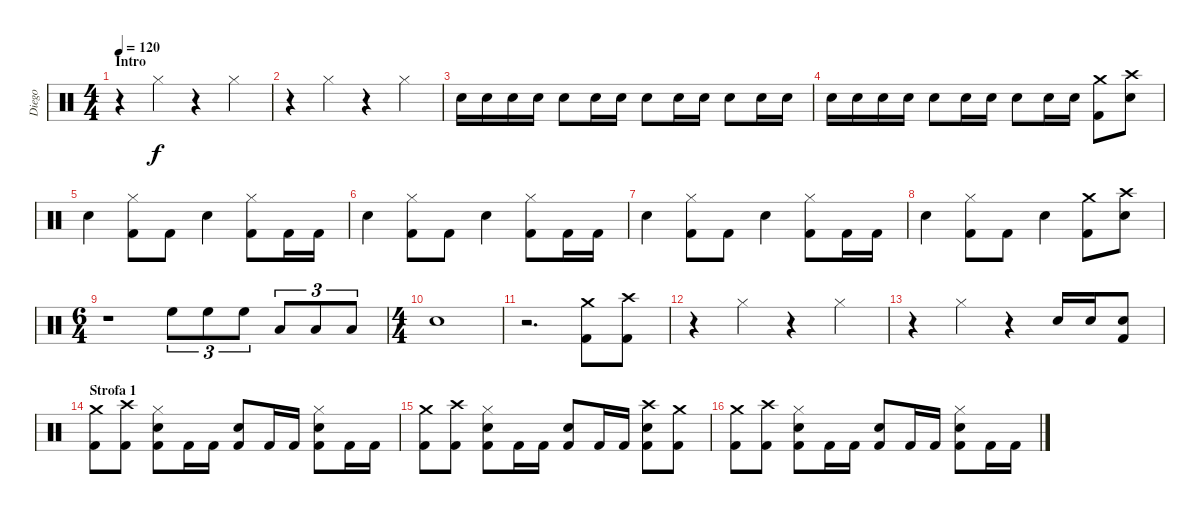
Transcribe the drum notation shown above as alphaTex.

\track ("Diego" "Diego") {instrument percussion}
\staff {score}
\articulation defaults
\ts (4 4)
\section ("" "Intro")
\tempo 120
\clef neutral
\ks c
r.4{dy f} "Hi-Hat (closed)".4 r.4 "Hi-Hat (closed)".4 |
r.4 "Hi-Hat (closed)".4 r.4 "Hi-Hat (closed)".4 |
"Snare (hit) 2".16 "Snare (hit) 2".16 "Snare (hit) 2".16 "Snare (hit) 2".16 "Snare (hit) 2".8 "Snare (hit) 2".16 "Snare (hit) 2".16 "Snare (hit) 2".8 "Snare (hit) 2".16 "Snare (hit) 2".16 "Snare (hit) 2".8 "Snare (hit) 2".16 "Snare (hit) 2".16 |
"Snare (hit) 2".16 "Snare (hit) 2".16 "Snare (hit) 2".16 "Snare (hit) 2".16 "Snare (hit) 2".8 "Snare (hit) 2".16 "Snare (hit) 2".16 "Snare (hit) 2".8 "Snare (hit) 2".16 "Snare (hit) 2".16 ("Crash medium (hit)" "Kick (hit) 2").8 ("Crash high (hit)" "Snare (hit) 2").8 |
"Snare (hit) 2".4 ("Hi-Hat (closed)" "Kick (hit) 2").8 "Kick (hit) 2".8 "Snare (hit) 2".4 ("Hi-Hat (closed)" "Kick (hit) 2").8 "Kick (hit) 2".16 "Kick (hit) 2".16 |
"Snare (hit) 2".4 ("Hi-Hat (closed)" "Kick (hit) 2").8 "Kick (hit) 2".8 "Snare (hit) 2".4 ("Hi-Hat (closed)" "Kick (hit) 2").8 "Kick (hit) 2".16 "Kick (hit) 2".16 |
"Snare (hit) 2".4 ("Hi-Hat (closed)" "Kick (hit) 2").8 "Kick (hit) 2".8 "Snare (hit) 2".4 ("Hi-Hat (closed)" "Kick (hit) 2").8 "Kick (hit) 2".16 "Kick (hit) 2".16 |
"Snare (hit) 2".4 ("Hi-Hat (closed)" "Kick (hit) 2").8 "Kick (hit) 2".8 "Snare (hit) 2".4 ("Crash medium (hit)" "Kick (hit) 2").8 ("Crash high (hit)" "Snare (hit) 2").8 |
\ts (6 4)
r.1 "High Floor Tom (hit)".8{tu (3 2)} "High Floor Tom (hit)".8{tu (3 2)} "High Floor Tom (hit)".8{tu (3 2)} "Low Tom (hit)".8{tu (3 2)} "Low Tom (hit)".8{tu (3 2)} "Low Tom (hit)".8{tu (3 2)} |
\ts (4 4)
"Snare (hit) 2".1 |
r.2{d} ("Crash medium (hit)" "Kick (hit) 2").8 ("Crash high (hit)" "Kick (hit) 2").8 |
r.4 "Hi-Hat (closed)".4 r.4 "Hi-Hat (closed)".4 |
r.4 "Hi-Hat (closed)".4 r.4 "Snare (hit) 2".16 "Snare (hit) 2".16 ("Snare (hit) 2" "Kick (hit) 2").8 |
\section ("" "Strofa 1")
("Crash medium (hit)" "Kick (hit) 2").8 ("Crash high (hit)" "Kick (hit) 2").8 ("Hi-Hat (closed)" "Snare (hit) 2" "Kick (hit) 2").8 "Kick (hit) 2".16 "Kick (hit) 2".16 ("Snare (hit) 2" "Kick (hit) 2").8 "Kick (hit) 2".16 "Kick (hit) 2".16 ("Hi-Hat (closed)" "Snare (hit) 2" "Kick (hit) 2").8 "Kick (hit) 2".16 "Kick (hit) 2".16 |
("Crash medium (hit)" "Kick (hit) 2").8 ("Crash high (hit)" "Kick (hit) 2").8 ("Hi-Hat (closed)" "Snare (hit) 2" "Kick (hit) 2").8 "Kick (hit) 2".16 "Kick (hit) 2".16 ("Snare (hit) 2" "Kick (hit) 2").8 "Kick (hit) 2".16 "Kick (hit) 2".16 ("Crash high (hit)" "Snare (hit) 2" "Kick (hit) 2").8 ("Crash medium (hit)" "Kick (hit) 2").8 |
("Crash medium (hit)" "Kick (hit) 2").8 ("Crash high (hit)" "Kick (hit) 2").8 ("Hi-Hat (closed)" "Snare (hit) 2" "Kick (hit) 2").8 "Kick (hit) 2".16 "Kick (hit) 2".16 ("Snare (hit) 2" "Kick (hit) 2").8 "Kick (hit) 2".16 "Kick (hit) 2".16 ("Hi-Hat (closed)" "Snare (hit) 2" "Kick (hit) 2").8 "Kick (hit) 2".16 "Kick (hit) 2".16
